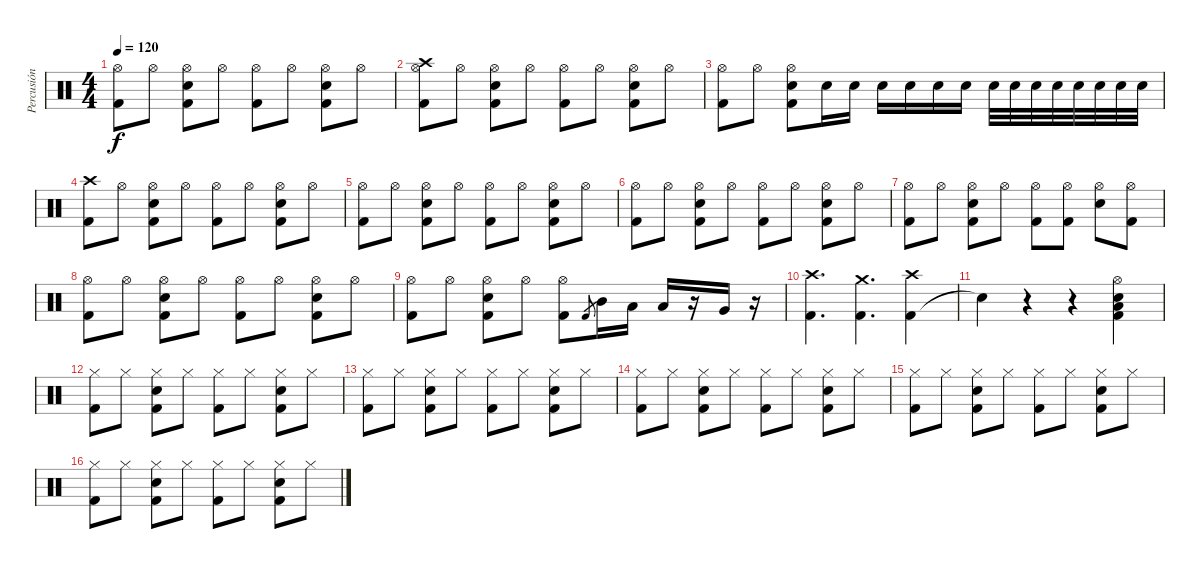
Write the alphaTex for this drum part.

\track ("Percusión" "Percusión") {instrument percussion}
\staff {score}
\articulation defaults
\ts (4 4)
\tempo 120
\clef neutral
\ks c
("Hi-Hat (open)" "Kick (hit) 2").8{dy f} "Hi-Hat (open)".8 ("Kick (hit) 2" "Electric Snare (hit)" "Hi-Hat (open)").8 "Hi-Hat (open)".8 ("Kick (hit) 2" "Hi-Hat (open)").8 "Hi-Hat (open)".8 ("Kick (hit) 2" "Electric Snare (hit)" "Hi-Hat (open)").8 "Hi-Hat (open)".8 |
("Hi-Hat (open)" "Crash high (hit)" "Kick (hit) 2").8 "Hi-Hat (open)".8 ("Kick (hit) 2" "Electric Snare (hit)" "Hi-Hat (open)").8 "Hi-Hat (open)".8 ("Kick (hit) 2" "Hi-Hat (open)").8 "Hi-Hat (open)".8 ("Kick (hit) 2" "Electric Snare (hit)" "Hi-Hat (open)").8 "Hi-Hat (open)".8 |
("Hi-Hat (open)" "Kick (hit) 2").8 "Hi-Hat (open)".8 ("Kick (hit) 2" "Electric Snare (hit)" "Hi-Hat (open)").8 "Electric Snare (hit)".16 "Electric Snare (hit)".16 "Electric Snare (hit)".16 "Electric Snare (hit)".16 "Electric Snare (hit)".16 "Electric Snare (hit)".16 "Electric Snare (hit)".32 "Electric Snare (hit)".32 "Electric Snare (hit)".32 "Electric Snare (hit)".32 "Electric Snare (hit)".32 "Electric Snare (hit)".32 "Electric Snare (hit)".32 "Electric Snare (hit)".32 |
("Crash high (hit)" "Kick (hit) 2").8 "Hi-Hat (open)".8 ("Kick (hit) 2" "Electric Snare (hit)" "Hi-Hat (open)").8 "Hi-Hat (open)".8 ("Kick (hit) 2" "Hi-Hat (open)").8 "Hi-Hat (open)".8 ("Kick (hit) 2" "Electric Snare (hit)" "Hi-Hat (open)").8 "Hi-Hat (open)".8 |
("Hi-Hat (open)" "Kick (hit) 2").8 "Hi-Hat (open)".8 ("Kick (hit) 2" "Electric Snare (hit)" "Hi-Hat (open)").8 "Hi-Hat (open)".8 ("Kick (hit) 2" "Hi-Hat (open)").8 "Hi-Hat (open)".8 ("Kick (hit) 2" "Electric Snare (hit)" "Hi-Hat (open)").8 "Hi-Hat (open)".8 |
("Hi-Hat (open)" "Kick (hit) 2").8 "Hi-Hat (open)".8 ("Kick (hit) 2" "Electric Snare (hit)" "Hi-Hat (open)").8 "Hi-Hat (open)".8 ("Kick (hit) 2" "Hi-Hat (open)").8 "Hi-Hat (open)".8 ("Kick (hit) 2" "Electric Snare (hit)" "Hi-Hat (open)").8 "Hi-Hat (open)".8 |
("Hi-Hat (open)" "Kick (hit) 2").8 "Hi-Hat (open)".8 ("Kick (hit) 2" "Electric Snare (hit)" "Hi-Hat (open)").8 "Hi-Hat (open)".8 ("Kick (hit) 2" "Hi-Hat (open)").8 ("Kick (hit) 2" "Hi-Hat (open)").8 ("Electric Snare (hit)" "Hi-Hat (open)").8 ("Kick (hit) 2" "Hi-Hat (open)").8 |
("Hi-Hat (open)" "Kick (hit) 2").8 "Hi-Hat (open)".8 ("Kick (hit) 2" "Electric Snare (hit)" "Hi-Hat (open)").8 "Hi-Hat (open)".8 ("Kick (hit) 2" "Hi-Hat (open)").8 "Hi-Hat (open)".8 ("Kick (hit) 2" "Electric Snare (hit)" "Hi-Hat (open)").8 "Hi-Hat (open)".8 |
("Hi-Hat (open)" "Kick (hit) 2").8 "Hi-Hat (open)".8 ("Kick (hit) 2" "Electric Snare (hit)" "Hi-Hat (open)").8 "Hi-Hat (open)".8 ("Kick (hit) 2" "Hi-Hat (open)").8 "Kick (hit) 2".8{gr} "Mid Tom (hit)".16 "Low Tom (hit)".16 "Low Tom (hit)".16 r.16 "Very Low Tom (hit)".16 r.16 |
("Kick (hit) 2" "Crash high (hit)").4{d} ("Kick (hit) 2" "Crash medium (hit)").4{d} ("Kick (hit) 2" "Crash high (hit)").4 |
"Snare (hit)"{t}.4 r.4 r.4 ("Electric Snare (hit)" "Kick (hit) 2" "Hi-Hat (open)" "Low Floor Tom (hit)").4 |
("Hi-Hat (closed)" "Kick (hit) 2").8 "Hi-Hat (closed)".8 ("Hi-Hat (closed)" "Kick (hit) 2" "Electric Snare (hit)").8 "Hi-Hat (closed)".8 ("Hi-Hat (closed)" "Kick (hit) 2").8 "Hi-Hat (closed)".8 ("Hi-Hat (closed)" "Kick (hit) 2" "Electric Snare (hit)").8 "Hi-Hat (closed)".8 |
("Hi-Hat (closed)" "Kick (hit) 2").8 "Hi-Hat (closed)".8 ("Hi-Hat (closed)" "Kick (hit) 2" "Electric Snare (hit)").8 "Hi-Hat (closed)".8 ("Hi-Hat (closed)" "Kick (hit) 2").8 "Hi-Hat (closed)".8 ("Hi-Hat (closed)" "Kick (hit) 2" "Electric Snare (hit)").8 "Hi-Hat (closed)".8 |
("Hi-Hat (closed)" "Kick (hit) 2").8 "Hi-Hat (closed)".8 ("Hi-Hat (closed)" "Kick (hit) 2" "Electric Snare (hit)").8 "Hi-Hat (closed)".8 ("Hi-Hat (closed)" "Kick (hit) 2").8 "Hi-Hat (closed)".8 ("Hi-Hat (closed)" "Kick (hit) 2" "Electric Snare (hit)").8 "Hi-Hat (closed)".8 |
("Hi-Hat (closed)" "Kick (hit) 2").8 "Hi-Hat (closed)".8 ("Hi-Hat (closed)" "Kick (hit) 2" "Electric Snare (hit)").8 "Hi-Hat (closed)".8 ("Hi-Hat (closed)" "Kick (hit) 2").8 "Hi-Hat (closed)".8 ("Hi-Hat (closed)" "Kick (hit) 2" "Electric Snare (hit)").8 "Hi-Hat (closed)".8 |
("Hi-Hat (closed)" "Kick (hit) 2").8 "Hi-Hat (closed)".8 ("Hi-Hat (closed)" "Kick (hit) 2" "Electric Snare (hit)").8 "Hi-Hat (closed)".8 ("Hi-Hat (closed)" "Kick (hit) 2").8 "Hi-Hat (closed)".8 ("Hi-Hat (closed)" "Kick (hit) 2" "Electric Snare (hit)").8 "Hi-Hat (closed)".8
